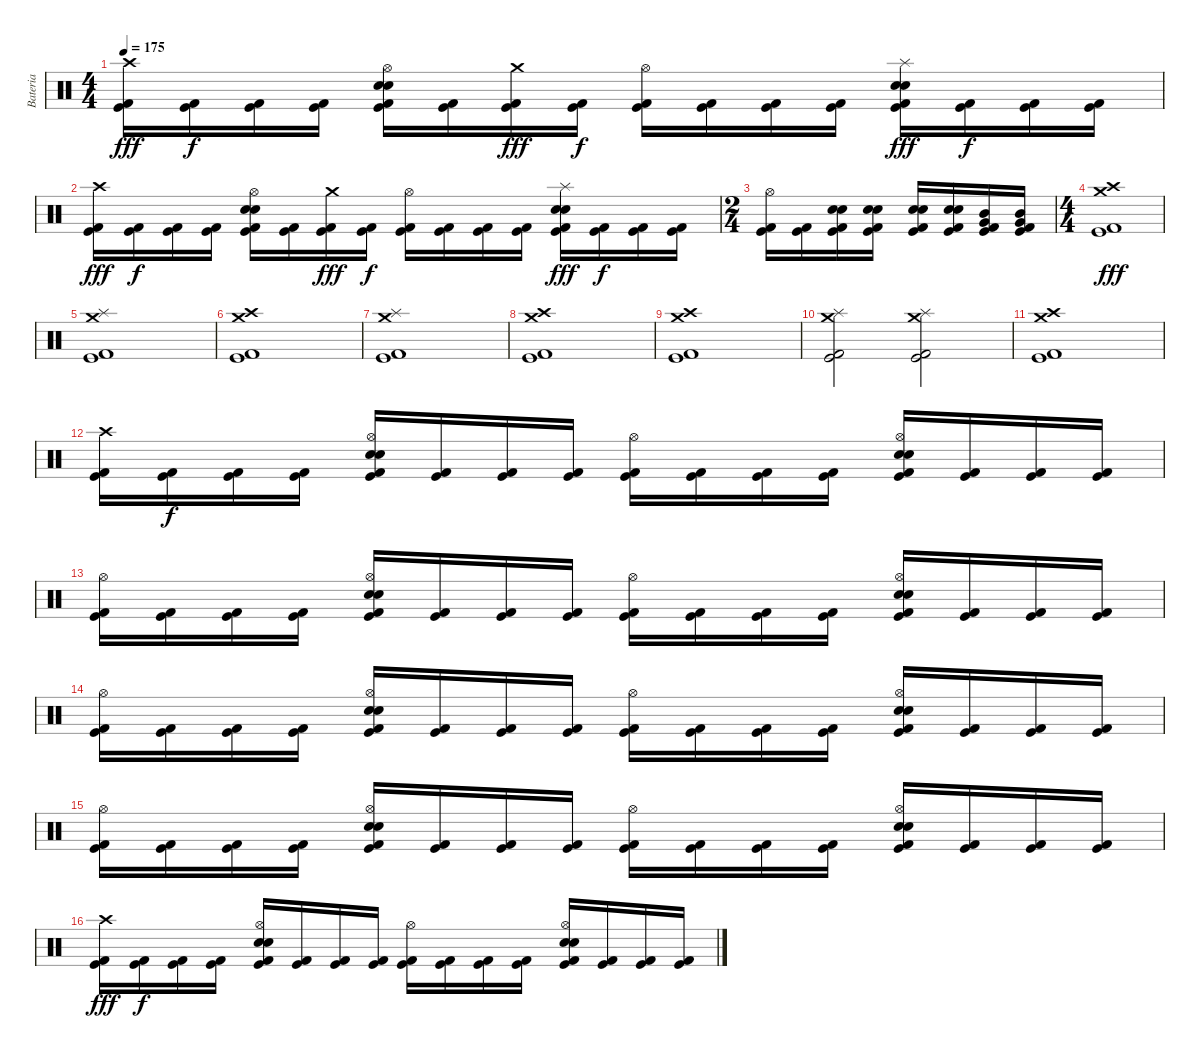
\track ("Bateria" "Bateria") {instrument percussion}
\staff {score}
\articulation defaults
\ts (4 4)
\tempo 175
\clef neutral
\ks c
("Crash high (hit)" "Kick (hit) 2" "Kick (hit)").16{dy fff} ("Kick (hit) 2" "Kick (hit)").16{dy f} ("Kick (hit) 2" "Kick (hit)").16 ("Kick (hit) 2" "Kick (hit)").16 ("Hi-Hat (open)" "Electric Snare (hit)" "Snare (hit) 2" "Kick (hit) 2" "Kick (hit)").16 ("Kick (hit) 2" "Kick (hit)").16 ("Crash medium (hit)" "Kick (hit) 2" "Kick (hit)").16{dy fff} ("Kick (hit) 2" "Kick (hit)").16{dy f} ("Hi-Hat (open)" "Kick (hit) 2" "Kick (hit)").16 ("Kick (hit) 2" "Kick (hit)").16 ("Kick (hit) 2" "Kick (hit)").16 ("Kick (hit) 2" "Kick (hit)").16 ("Splash (hit)" "Electric Snare (hit)" "Snare (hit) 2" "Kick (hit) 2" "Kick (hit)").16{dy fff} ("Kick (hit) 2" "Kick (hit)").16{dy f} ("Kick (hit) 2" "Kick (hit)").16 ("Kick (hit) 2" "Kick (hit)").16 |
("Crash high (hit)" "Kick (hit) 2" "Kick (hit)").16{dy fff} ("Kick (hit) 2" "Kick (hit)").16{dy f} ("Kick (hit) 2" "Kick (hit)").16 ("Kick (hit) 2" "Kick (hit)").16 ("Hi-Hat (open)" "Electric Snare (hit)" "Snare (hit) 2" "Kick (hit) 2" "Kick (hit)").16 ("Kick (hit) 2" "Kick (hit)").16 ("Crash medium (hit)" "Kick (hit) 2" "Kick (hit)").16{dy fff} ("Kick (hit) 2" "Kick (hit)").16{dy f} ("Hi-Hat (open)" "Kick (hit) 2" "Kick (hit)").16 ("Kick (hit) 2" "Kick (hit)").16 ("Kick (hit) 2" "Kick (hit)").16 ("Kick (hit) 2" "Kick (hit)").16 ("Splash (hit)" "Electric Snare (hit)" "Snare (hit) 2" "Kick (hit) 2" "Kick (hit)").16{dy fff} ("Kick (hit) 2" "Kick (hit)").16{dy f} ("Kick (hit) 2" "Kick (hit)").16 ("Kick (hit) 2" "Kick (hit)").16 |
\ts (2 4)
("Hi-Hat (open)" "Kick (hit) 2" "Kick (hit)").16 ("Kick (hit) 2" "Kick (hit)").16 ("Electric Snare (hit)" "Snare (hit) 2" "Kick (hit) 2" "Kick (hit)").16 ("Electric Snare (hit)" "Snare (hit) 2" "Kick (hit) 2" "Kick (hit)").16 ("Electric Snare (hit)" "Snare (hit) 2" "Kick (hit) 2" "Kick (hit)").16 ("Electric Snare (hit)" "Snare (hit) 2" "Kick (hit) 2" "Kick (hit)").16 ("Mid Tom (hit)" "Very Low Tom (hit)" "Kick (hit) 2" "Kick (hit)").16 ("Mid Tom (hit)" "Very Low Tom (hit)" "Kick (hit) 2" "Kick (hit)").16 |
\ts (4 4)
("Crash high (hit)" "Crash medium (hit)" "Kick (hit) 2" "Kick (hit)").1{dy fff} |
("Crash medium (hit)" "Splash (hit)" "Kick (hit) 2" "Kick (hit)").1 |
("Crash high (hit)" "Crash medium (hit)" "Kick (hit) 2" "Kick (hit)").1 |
("Crash medium (hit)" "Splash (hit)" "Kick (hit) 2" "Kick (hit)").1 |
("Crash high (hit)" "Crash medium (hit)" "Kick (hit) 2" "Kick (hit)").1 |
("Crash high (hit)" "Crash medium (hit)" "Kick (hit) 2" "Kick (hit)").1 |
("Crash medium (hit)" "Splash (hit)" "Kick (hit) 2" "Kick (hit)").2 ("Crash medium (hit)" "Splash (hit)" "Kick (hit) 2" "Kick (hit)").2 |
("Crash high (hit)" "Crash medium (hit)" "Kick (hit) 2" "Kick (hit)").1 |
("Crash high (hit)" "Kick (hit) 2" "Kick (hit)").16 ("Kick (hit) 2" "Kick (hit)").16{dy f} ("Kick (hit) 2" "Kick (hit)").16 ("Kick (hit) 2" "Kick (hit)").16 ("Hi-Hat (open)" "Electric Snare (hit)" "Snare (hit) 2" "Kick (hit) 2" "Kick (hit)").16 ("Kick (hit) 2" "Kick (hit)").16 ("Kick (hit) 2" "Kick (hit)").16 ("Kick (hit) 2" "Kick (hit)").16 ("Hi-Hat (open)" "Kick (hit) 2" "Kick (hit)").16 ("Kick (hit) 2" "Kick (hit)").16 ("Kick (hit) 2" "Kick (hit)").16 ("Kick (hit) 2" "Kick (hit)").16 ("Hi-Hat (open)" "Electric Snare (hit)" "Snare (hit) 2" "Kick (hit) 2" "Kick (hit)").16 ("Kick (hit) 2" "Kick (hit)").16 ("Kick (hit) 2" "Kick (hit)").16 ("Kick (hit) 2" "Kick (hit)").16 |
("Hi-Hat (open)" "Kick (hit) 2" "Kick (hit)").16 ("Kick (hit) 2" "Kick (hit)").16 ("Kick (hit) 2" "Kick (hit)").16 ("Kick (hit) 2" "Kick (hit)").16 ("Hi-Hat (open)" "Electric Snare (hit)" "Snare (hit) 2" "Kick (hit) 2" "Kick (hit)").16 ("Kick (hit) 2" "Kick (hit)").16 ("Kick (hit) 2" "Kick (hit)").16 ("Kick (hit) 2" "Kick (hit)").16 ("Hi-Hat (open)" "Kick (hit) 2" "Kick (hit)").16 ("Kick (hit) 2" "Kick (hit)").16 ("Kick (hit) 2" "Kick (hit)").16 ("Kick (hit) 2" "Kick (hit)").16 ("Hi-Hat (open)" "Electric Snare (hit)" "Snare (hit) 2" "Kick (hit) 2" "Kick (hit)").16 ("Kick (hit) 2" "Kick (hit)").16 ("Kick (hit) 2" "Kick (hit)").16 ("Kick (hit) 2" "Kick (hit)").16 |
("Hi-Hat (open)" "Kick (hit) 2" "Kick (hit)").16 ("Kick (hit) 2" "Kick (hit)").16 ("Kick (hit) 2" "Kick (hit)").16 ("Kick (hit) 2" "Kick (hit)").16 ("Hi-Hat (open)" "Electric Snare (hit)" "Snare (hit) 2" "Kick (hit) 2" "Kick (hit)").16 ("Kick (hit) 2" "Kick (hit)").16 ("Kick (hit) 2" "Kick (hit)").16 ("Kick (hit) 2" "Kick (hit)").16 ("Hi-Hat (open)" "Kick (hit) 2" "Kick (hit)").16 ("Kick (hit) 2" "Kick (hit)").16 ("Kick (hit) 2" "Kick (hit)").16 ("Kick (hit) 2" "Kick (hit)").16 ("Hi-Hat (open)" "Electric Snare (hit)" "Snare (hit) 2" "Kick (hit) 2" "Kick (hit)").16 ("Kick (hit) 2" "Kick (hit)").16 ("Kick (hit) 2" "Kick (hit)").16 ("Kick (hit) 2" "Kick (hit)").16 |
("Hi-Hat (open)" "Kick (hit) 2" "Kick (hit)").16 ("Kick (hit) 2" "Kick (hit)").16 ("Kick (hit) 2" "Kick (hit)").16 ("Kick (hit) 2" "Kick (hit)").16 ("Hi-Hat (open)" "Electric Snare (hit)" "Snare (hit) 2" "Kick (hit) 2" "Kick (hit)").16 ("Kick (hit) 2" "Kick (hit)").16 ("Kick (hit) 2" "Kick (hit)").16 ("Kick (hit) 2" "Kick (hit)").16 ("Hi-Hat (open)" "Kick (hit) 2" "Kick (hit)").16 ("Kick (hit) 2" "Kick (hit)").16 ("Kick (hit) 2" "Kick (hit)").16 ("Kick (hit) 2" "Kick (hit)").16 ("Hi-Hat (open)" "Electric Snare (hit)" "Snare (hit) 2" "Kick (hit) 2" "Kick (hit)").16 ("Kick (hit) 2" "Kick (hit)").16 ("Kick (hit) 2" "Kick (hit)").16 ("Kick (hit) 2" "Kick (hit)").16 |
("Crash high (hit)" "Kick (hit) 2" "Kick (hit)").16{dy fff} ("Kick (hit) 2" "Kick (hit)").16{dy f} ("Kick (hit) 2" "Kick (hit)").16 ("Kick (hit) 2" "Kick (hit)").16 ("Hi-Hat (open)" "Electric Snare (hit)" "Snare (hit) 2" "Kick (hit) 2" "Kick (hit)").16 ("Kick (hit) 2" "Kick (hit)").16 ("Kick (hit) 2" "Kick (hit)").16 ("Kick (hit) 2" "Kick (hit)").16 ("Hi-Hat (open)" "Kick (hit) 2" "Kick (hit)").16 ("Kick (hit) 2" "Kick (hit)").16 ("Kick (hit) 2" "Kick (hit)").16 ("Kick (hit) 2" "Kick (hit)").16 ("Hi-Hat (open)" "Electric Snare (hit)" "Snare (hit) 2" "Kick (hit) 2" "Kick (hit)").16 ("Kick (hit) 2" "Kick (hit)").16 ("Kick (hit) 2" "Kick (hit)").16 ("Kick (hit) 2" "Kick (hit)").16
